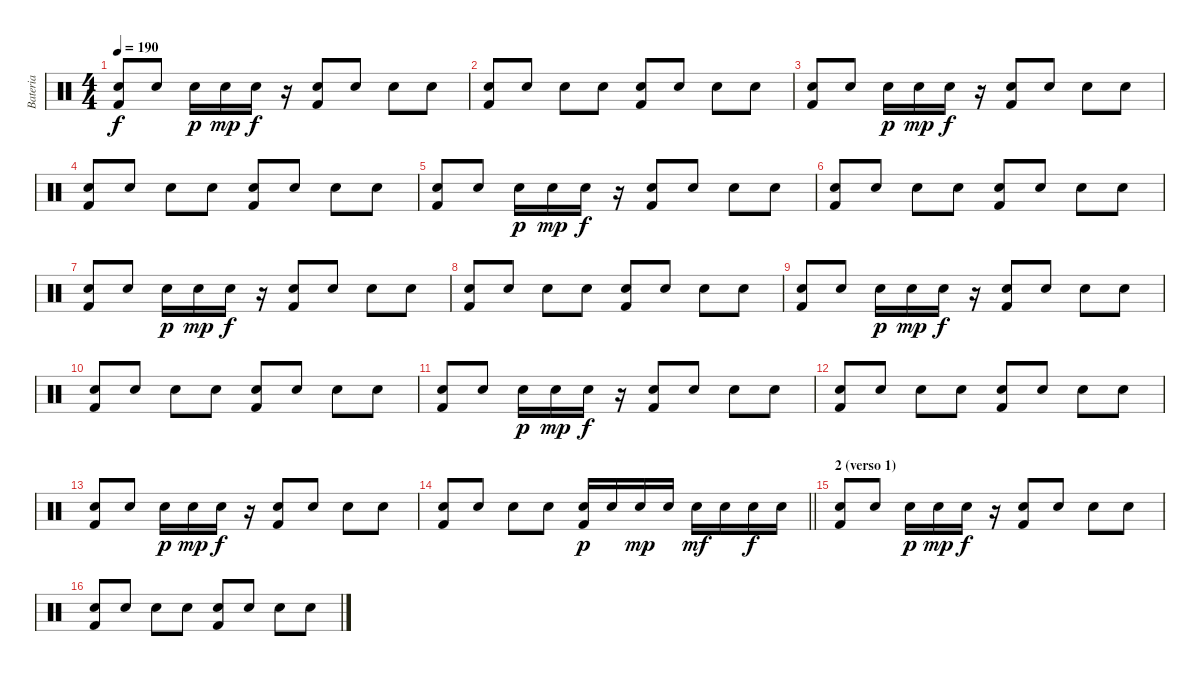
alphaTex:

\track ("Bateria" "Bateria") {instrument percussion}
\staff {score}
\articulation defaults
\ts (4 4)
\tempo 190
\clef neutral
\ks c
("Electric Snare (hit)" "Kick (hit) 2").8{dy f} "Snare (hit)".8 "Electric Snare (hit)".16{dy p} "Electric Snare (hit)".16{dy mp} "Electric Snare (hit)".16{dy f} r.16 ("Electric Snare (hit)" "Kick (hit) 2").8 "Snare (hit)".8 "Electric Snare (hit)".8 "Snare (hit)".8 |
("Electric Snare (hit)" "Kick (hit) 2").8 "Electric Snare (hit)".8 "Electric Snare (hit)".8 "Snare (hit)".8 ("Electric Snare (hit)" "Kick (hit) 2").8 "Snare (hit)".8 "Electric Snare (hit)".8 "Electric Snare (hit)".8 |
("Electric Snare (hit)" "Kick (hit) 2").8 "Snare (hit)".8 "Electric Snare (hit)".16{dy p} "Electric Snare (hit)".16{dy mp} "Electric Snare (hit)".16{dy f} r.16 ("Electric Snare (hit)" "Kick (hit) 2").8 "Snare (hit)".8 "Electric Snare (hit)".8 "Snare (hit)".8 |
("Electric Snare (hit)" "Kick (hit) 2").8 "Electric Snare (hit)".8 "Electric Snare (hit)".8 "Snare (hit)".8 ("Electric Snare (hit)" "Kick (hit) 2").8 "Snare (hit)".8 "Electric Snare (hit)".8 "Electric Snare (hit)".8 |
("Electric Snare (hit)" "Kick (hit) 2").8 "Snare (hit)".8 "Electric Snare (hit)".16{dy p} "Electric Snare (hit)".16{dy mp} "Electric Snare (hit)".16{dy f} r.16 ("Electric Snare (hit)" "Kick (hit) 2").8 "Snare (hit)".8 "Electric Snare (hit)".8 "Snare (hit)".8 |
("Electric Snare (hit)" "Kick (hit) 2").8 "Electric Snare (hit)".8 "Electric Snare (hit)".8 "Snare (hit)".8 ("Electric Snare (hit)" "Kick (hit) 2").8 "Snare (hit)".8 "Electric Snare (hit)".8 "Electric Snare (hit)".8 |
("Electric Snare (hit)" "Kick (hit) 2").8 "Snare (hit)".8 "Electric Snare (hit)".16{dy p} "Electric Snare (hit)".16{dy mp} "Electric Snare (hit)".16{dy f} r.16 ("Electric Snare (hit)" "Kick (hit) 2").8 "Snare (hit)".8 "Electric Snare (hit)".8 "Snare (hit)".8 |
("Electric Snare (hit)" "Kick (hit) 2").8 "Electric Snare (hit)".8 "Electric Snare (hit)".8 "Snare (hit)".8 ("Electric Snare (hit)" "Kick (hit) 2").8 "Snare (hit)".8 "Electric Snare (hit)".8 "Electric Snare (hit)".8 |
("Electric Snare (hit)" "Kick (hit) 2").8 "Snare (hit)".8 "Electric Snare (hit)".16{dy p} "Electric Snare (hit)".16{dy mp} "Electric Snare (hit)".16{dy f} r.16 ("Electric Snare (hit)" "Kick (hit) 2").8 "Snare (hit)".8 "Electric Snare (hit)".8 "Snare (hit)".8 |
("Electric Snare (hit)" "Kick (hit) 2").8 "Electric Snare (hit)".8 "Electric Snare (hit)".8 "Snare (hit)".8 ("Electric Snare (hit)" "Kick (hit) 2").8 "Snare (hit)".8 "Electric Snare (hit)".8 "Electric Snare (hit)".8 |
("Electric Snare (hit)" "Kick (hit) 2").8 "Snare (hit)".8 "Electric Snare (hit)".16{dy p} "Electric Snare (hit)".16{dy mp} "Electric Snare (hit)".16{dy f} r.16 ("Electric Snare (hit)" "Kick (hit) 2").8 "Snare (hit)".8 "Electric Snare (hit)".8 "Snare (hit)".8 |
("Electric Snare (hit)" "Kick (hit) 2").8 "Electric Snare (hit)".8 "Electric Snare (hit)".8 "Snare (hit)".8 ("Electric Snare (hit)" "Kick (hit) 2").8 "Snare (hit)".8 "Electric Snare (hit)".8 "Electric Snare (hit)".8 |
("Electric Snare (hit)" "Kick (hit) 2").8 "Snare (hit)".8 "Electric Snare (hit)".16{dy p} "Electric Snare (hit)".16{dy mp} "Electric Snare (hit)".16{dy f} r.16 ("Electric Snare (hit)" "Kick (hit) 2").8 "Snare (hit)".8 "Electric Snare (hit)".8 "Snare (hit)".8 |
\barLineRight lightlight
("Electric Snare (hit)" "Kick (hit) 2").8 "Electric Snare (hit)".8 "Electric Snare (hit)".8 "Snare (hit)".8 ("Electric Snare (hit)" "Kick (hit) 2").16{dy p} "Electric Snare (hit)".16 "Electric Snare (hit)".16{dy mp} "Electric Snare (hit)".16 "Electric Snare (hit)".16{dy mf} "Electric Snare (hit)".16 "Electric Snare (hit)".16{dy f} "Electric Snare (hit)".16 |
\section ("" "2 (verso 1)")
("Electric Snare (hit)" "Kick (hit) 2").8 "Snare (hit)".8 "Electric Snare (hit)".16{dy p} "Electric Snare (hit)".16{dy mp} "Electric Snare (hit)".16{dy f} r.16 ("Electric Snare (hit)" "Kick (hit) 2").8 "Snare (hit)".8 "Electric Snare (hit)".8 "Snare (hit)".8 |
("Electric Snare (hit)" "Kick (hit) 2").8 "Electric Snare (hit)".8 "Electric Snare (hit)".8 "Snare (hit)".8 ("Electric Snare (hit)" "Kick (hit) 2").8 "Snare (hit)".8 "Electric Snare (hit)".8 "Electric Snare (hit)".8
